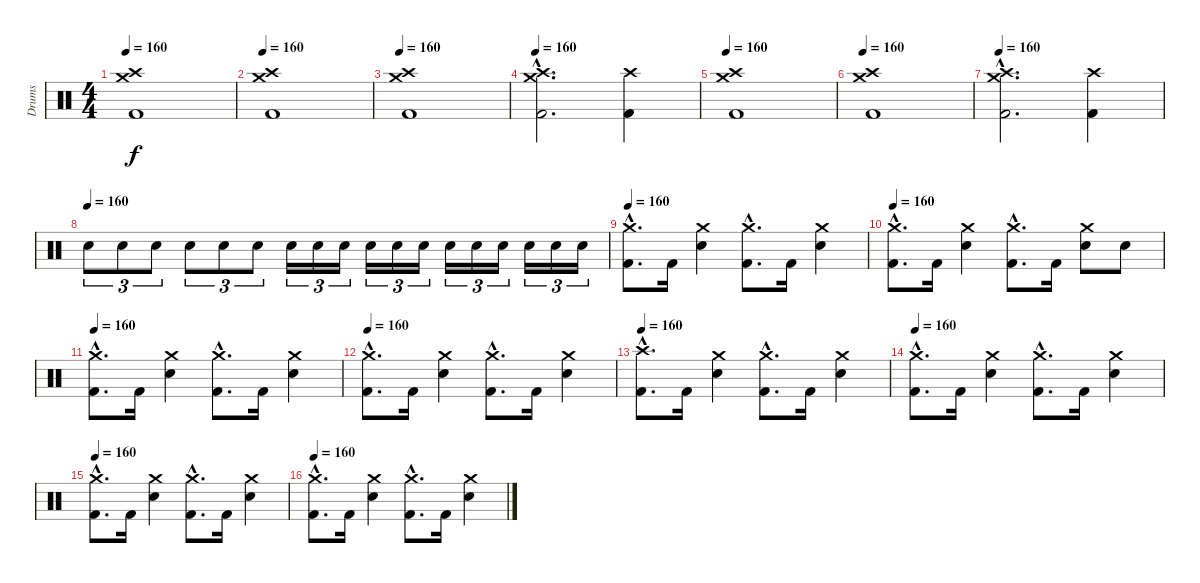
\track ("Drums" "Drums") {instrument percussion}
\staff {score}
\articulation defaults
\ts (4 4)
\tempo 160
\clef neutral
\ks c
("Crash medium (hit)" "Crash high (hit)" "Kick (hit) 2").1{dy f} |
\tempo 160
("Crash medium (hit)" "Crash high (hit)" "Kick (hit) 2").1 |
\tempo 160
("Crash medium (hit)" "Crash high (hit)" "Kick (hit) 2").1 |
\tempo 160
("Crash medium (hit)"{hac} "Crash high (hit)"{hac} "Kick (hit) 2"{hac}).2{d} ("Crash high (hit)" "Kick (hit) 2").4 |
\tempo 160
("Crash medium (hit)" "Crash high (hit)" "Kick (hit) 2").1 |
\tempo 160
("Crash medium (hit)" "Crash high (hit)" "Kick (hit) 2").1 |
\tempo 160
("Crash medium (hit)"{hac} "Crash high (hit)"{hac} "Kick (hit) 2"{hac}).2{d} ("Crash high (hit)" "Kick (hit) 2").4 |
\tempo (160)
"Snare (hit) 2".8{tu (3 2)} "Snare (hit) 2".8{tu (3 2)} "Snare (hit) 2".8{tu (3 2)} "Snare (hit) 2".8{tu (3 2)} "Snare (hit) 2".8{tu (3 2)} "Snare (hit) 2".8{tu (3 2)} "Snare (hit) 2".16{tu (3 2)} "Snare (hit) 2".16{tu (3 2)} "Snare (hit) 2".16{tu (3 2)} "Snare (hit) 2".16{tu (3 2)} "Snare (hit) 2".16{tu (3 2)} "Snare (hit) 2".16{tu (3 2)} "Snare (hit) 2".16{tu (3 2)} "Snare (hit) 2".16{tu (3 2)} "Snare (hit) 2".16{tu (3 2)} "Snare (hit) 2".16{tu (3 2)} "Snare (hit) 2".16{tu (3 2)} "Snare (hit) 2".16{tu (3 2)} |
\tempo 160
("Crash medium (hit)"{hac} "Kick (hit) 2"{hac}).8{d} "Kick (hit) 2".16 ("Crash medium (hit)" "Snare (hit) 2").4 ("Crash medium (hit)"{hac} "Kick (hit) 2"{hac}).8{d} "Kick (hit) 2".16 ("Crash medium (hit)" "Snare (hit) 2").4 |
\tempo 160
("Crash medium (hit)"{hac} "Kick (hit) 2"{hac}).8{d} "Kick (hit) 2".16 ("Crash medium (hit)" "Snare (hit) 2").4 ("Crash medium (hit)"{hac} "Kick (hit) 2"{hac}).8{d} "Kick (hit) 2".16 ("Crash medium (hit)" "Snare (hit) 2").8 "Snare (hit) 2".8 |
\tempo 160
("Crash medium (hit)"{hac} "Kick (hit) 2"{hac}).8{d} "Kick (hit) 2".16 ("Crash medium (hit)" "Snare (hit) 2").4 ("Crash medium (hit)"{hac} "Kick (hit) 2"{hac}).8{d} "Kick (hit) 2".16 ("Crash medium (hit)" "Snare (hit) 2").4 |
\tempo 160
("Crash medium (hit)"{hac} "Kick (hit) 2"{hac}).8{d} "Kick (hit) 2".16 ("Crash medium (hit)" "Snare (hit) 2").4 ("Crash medium (hit)"{hac} "Kick (hit) 2"{hac}).8{d} "Kick (hit) 2".16 ("Crash medium (hit)" "Snare (hit) 2").4 |
\tempo 160
("Crash high (hit)"{hac} "Kick (hit) 2"{hac}).8{d} "Kick (hit) 2".16 ("Crash medium (hit)" "Snare (hit) 2").4 ("Crash medium (hit)"{hac} "Kick (hit) 2"{hac}).8{d} "Kick (hit) 2".16 ("Crash medium (hit)" "Snare (hit) 2").4 |
\tempo 160
("Crash medium (hit)"{hac} "Kick (hit) 2"{hac}).8{d} "Kick (hit) 2".16 ("Crash medium (hit)" "Snare (hit) 2").4 ("Crash medium (hit)"{hac} "Kick (hit) 2"{hac}).8{d} "Kick (hit) 2".16 ("Crash medium (hit)" "Snare (hit) 2").4 |
\tempo 160
("Crash medium (hit)"{hac} "Kick (hit) 2"{hac}).8{d} "Kick (hit) 2".16 ("Crash medium (hit)" "Snare (hit) 2").4 ("Crash medium (hit)"{hac} "Kick (hit) 2"{hac}).8{d} "Kick (hit) 2".16 ("Crash medium (hit)" "Snare (hit) 2").4 |
\tempo 160
("Crash medium (hit)"{hac} "Kick (hit) 2"{hac}).8{d} "Kick (hit) 2".16 ("Crash medium (hit)" "Snare (hit) 2").4 ("Crash medium (hit)"{hac} "Kick (hit) 2"{hac}).8{d} "Kick (hit) 2".16 ("Crash medium (hit)" "Snare (hit) 2").4
